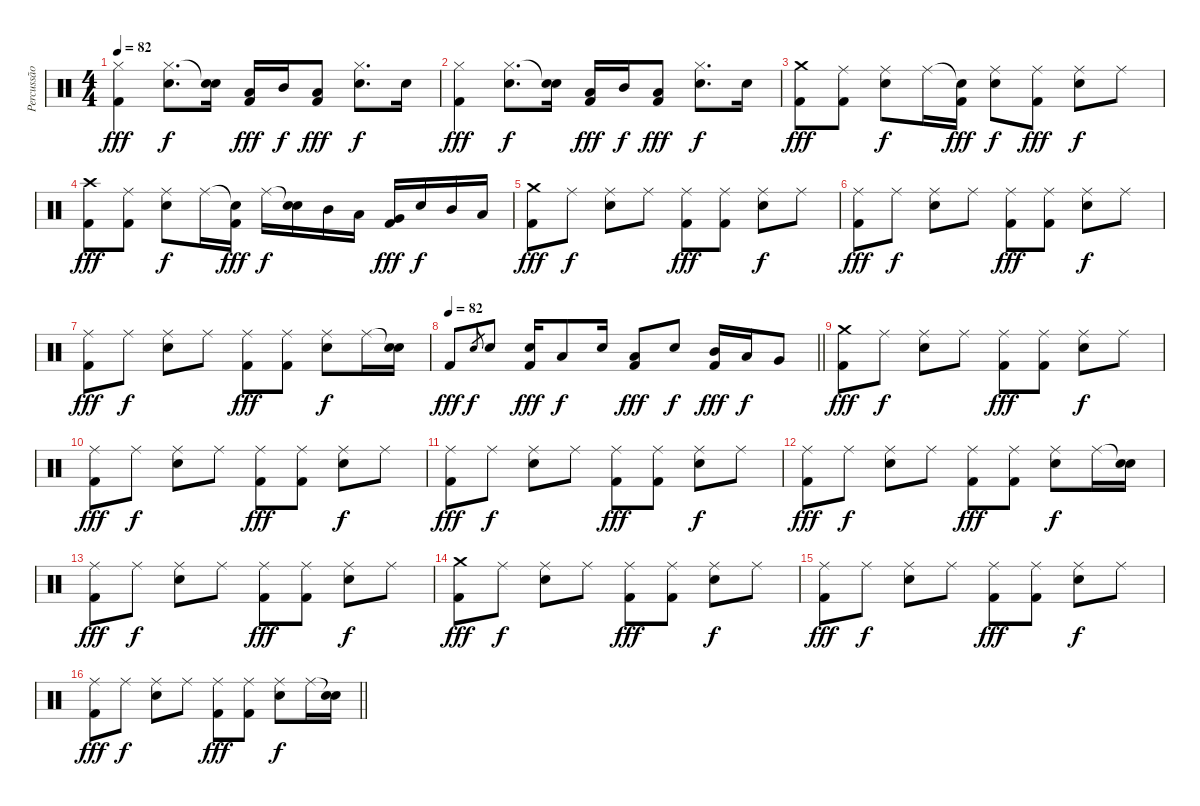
\track ("Percussão" "Percussão") {instrument percussion}
\staff {score}
\articulation defaults
\ts (4 4)
\tempo 82
\clef neutral
\ks c
("Hi-Hat (closed)" "Kick (hit) 2").4{dy fff} ("Hi-Hat (closed)" "Snare (hit) 2").8{d dy f} ("Snare (hit)"{t} "Snare (hit) 2").16 ("Low Tom (hit)" "Kick (hit) 2").16{dy fff} "Mid Tom (hit)".16{dy f} ("Low Tom (hit)" "Kick (hit) 2").8{dy fff} ("Hi-Hat (closed)" "Snare (hit) 2").8{d dy f} "Snare (hit) 2".16 |
("Hi-Hat (closed)" "Kick (hit) 2").4{dy fff} ("Hi-Hat (closed)" "Snare (hit) 2").8{d dy f} ("Snare (hit)"{t} "Snare (hit) 2").16 ("Low Tom (hit)" "Kick (hit) 2").16{dy fff} "Mid Tom (hit)".16{dy f} ("Low Tom (hit)" "Kick (hit) 2").8{dy fff} ("Hi-Hat (closed)" "Snare (hit) 2").8{d dy f} "Snare (hit) 2".16 |
("Crash medium (hit)" "Kick (hit) 2").8{dy fff} ("Ride (middle)" "Kick (hit) 2").8 ("Ride (middle)" "Snare (hit) 2").8{dy f} "Ride (middle)".16 ("Snare (hit)"{t} "Kick (hit) 2").16{dy fff} ("Ride (middle)" "Snare (hit) 2").8{dy f} ("Ride (middle)" "Kick (hit) 2").8{dy fff} ("Ride (middle)" "Snare (hit) 2").8{dy f} "Ride (middle)".8 |
("Crash high (hit)" "Kick (hit) 2").8{dy fff} ("Ride (middle)" "Kick (hit) 2").8 ("Ride (middle)" "Snare (hit) 2").8{dy f} "Ride (middle)".16 ("Snare (hit)"{t} "Kick (hit) 2").16{dy fff} "Ride (middle)".16{dy f} ("Snare (hit)"{t} "Snare (hit) 2").16 "Mid Tom (hit)".16 "Low Tom (hit)".16 ("Very Low Tom (hit)" "Kick (hit) 2").16{dy fff} "Snare (hit) 2".16{dy f} "Mid Tom (hit)".16 "Low Tom (hit)".16 |
("Crash medium (hit)" "Kick (hit) 2").8{dy fff} "Ride (middle)".8{dy f} ("Ride (middle)" "Snare (hit) 2").8 "Ride (middle)".8 ("Ride (middle)" "Kick (hit) 2").8{dy fff} ("Ride (middle)" "Kick (hit) 2").8 ("Ride (middle)" "Snare (hit) 2").8{dy f} "Ride (middle)".8 |
("Ride (middle)" "Kick (hit) 2").8{dy fff} "Ride (middle)".8{dy f} ("Ride (middle)" "Snare (hit) 2").8 "Ride (middle)".8 ("Ride (middle)" "Kick (hit) 2").8{dy fff} ("Ride (middle)" "Kick (hit) 2").8 ("Ride (middle)" "Snare (hit) 2").8{dy f} "Ride (middle)".8 |
("Ride (middle)" "Kick (hit) 2").8{dy fff} "Ride (middle)".8{dy f} ("Ride (middle)" "Snare (hit) 2").8 "Ride (middle)".8 ("Ride (middle)" "Kick (hit) 2").8{dy fff} ("Ride (middle)" "Kick (hit) 2").8 ("Ride (middle)" "Snare (hit) 2").8{dy f} "Ride (middle)".16 ("Snare (hit)"{t} "Snare (hit) 2").16 |
\tempo 82
\barLineRight lightlight "Kick (hit) 2".8{dy fff} "Snare (hit) 2".8{gr dy f} "Snare (hit) 2".8
("Snare (hit) 2" "Kick (hit) 2").16{dy fff} "Low Tom (hit)".8{dy f} "Snare (hit) 2".16 ("Low Tom (hit)" "Kick (hit) 2").8{dy fff} "Snare (hit) 2".8{dy f} ("Mid Tom (hit)" "Kick (hit) 2").16{dy fff} "Low Tom (hit)".16{dy f} "Very Low Tom (hit)".8 |
("Crash medium (hit)" "Kick (hit) 2").8{dy fff} "Ride (middle)".8{dy f} ("Ride (middle)" "Snare (hit) 2").8 "Ride (middle)".8 ("Ride (middle)" "Kick (hit) 2").8{dy fff} ("Ride (middle)" "Kick (hit) 2").8 ("Ride (middle)" "Snare (hit) 2").8{dy f} "Ride (middle)".8 |
("Ride (middle)" "Kick (hit) 2").8{dy fff} "Ride (middle)".8{dy f} ("Ride (middle)" "Snare (hit) 2").8 "Ride (middle)".8 ("Ride (middle)" "Kick (hit) 2").8{dy fff} ("Ride (middle)" "Kick (hit) 2").8 ("Ride (middle)" "Snare (hit) 2").8{dy f} "Ride (middle)".8 |
("Ride (middle)" "Kick (hit) 2").8{dy fff} "Ride (middle)".8{dy f} ("Ride (middle)" "Snare (hit) 2").8 "Ride (middle)".8 ("Ride (middle)" "Kick (hit) 2").8{dy fff} ("Ride (middle)" "Kick (hit) 2").8 ("Ride (middle)" "Snare (hit) 2").8{dy f} "Ride (middle)".8 |
("Ride (middle)" "Kick (hit) 2").8{dy fff} "Ride (middle)".8{dy f} ("Ride (middle)" "Snare (hit) 2").8 "Ride (middle)".8 ("Ride (middle)" "Kick (hit) 2").8{dy fff} ("Ride (middle)" "Kick (hit) 2").8 ("Ride (middle)" "Snare (hit) 2").8{dy f} "Ride (middle)".16 ("Snare (hit)"{t} "Snare (hit) 2").16 |
("Ride (middle)" "Kick (hit) 2").8{dy fff} "Ride (middle)".8{dy f} ("Ride (middle)" "Snare (hit) 2").8 "Ride (middle)".8 ("Ride (middle)" "Kick (hit) 2").8{dy fff} ("Ride (middle)" "Kick (hit) 2").8 ("Ride (middle)" "Snare (hit) 2").8{dy f} "Ride (middle)".8 |
("Crash medium (hit)" "Kick (hit) 2").8{dy fff} "Ride (middle)".8{dy f} ("Ride (middle)" "Snare (hit) 2").8 "Ride (middle)".8 ("Ride (middle)" "Kick (hit) 2").8{dy fff} ("Ride (middle)" "Kick (hit) 2").8 ("Ride (middle)" "Snare (hit) 2").8{dy f} "Ride (middle)".8 |
("Ride (middle)" "Kick (hit) 2").8{dy fff} "Ride (middle)".8{dy f} ("Ride (middle)" "Snare (hit) 2").8 "Ride (middle)".8 ("Ride (middle)" "Kick (hit) 2").8{dy fff} ("Ride (middle)" "Kick (hit) 2").8 ("Ride (middle)" "Snare (hit) 2").8{dy f} "Ride (middle)".8 |
\barLineRight lightlight
("Ride (middle)" "Kick (hit) 2").8{dy fff} "Ride (middle)".8{dy f} ("Ride (middle)" "Snare (hit) 2").8 "Ride (middle)".8 ("Ride (middle)" "Kick (hit) 2").8{dy fff} ("Ride (middle)" "Kick (hit) 2").8 ("Ride (middle)" "Snare (hit) 2").8{dy f} "Ride (middle)".16 ("Snare (hit)"{t} "Snare (hit) 2").16
